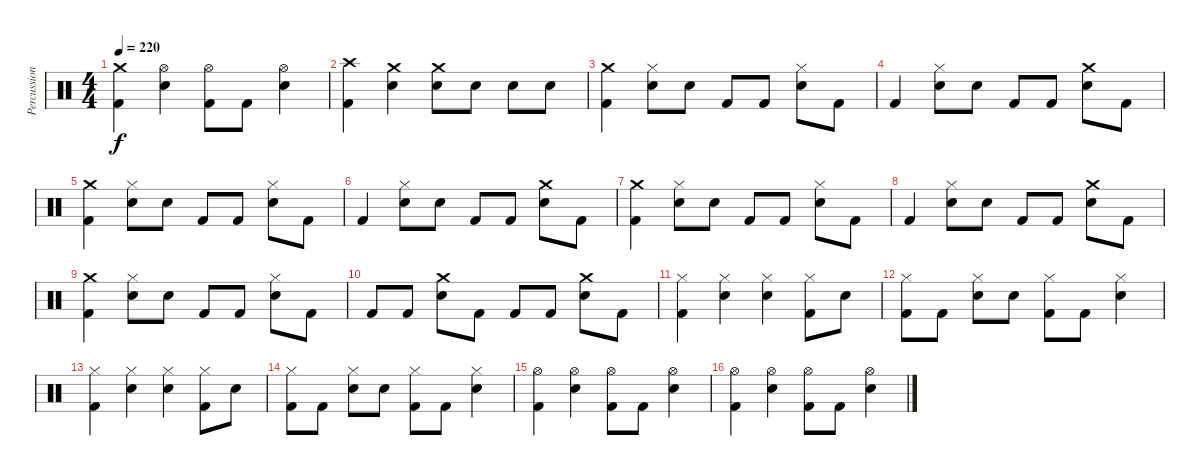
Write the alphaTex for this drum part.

\track ("Percussion" "Percussion") {instrument percussion}
\staff {score}
\articulation defaults
\ts (4 4)
\tempo 220
\clef neutral
\ks c
("Crash medium (hit)" "Kick (hit) 2").4{dy f} ("Hi-Hat (open)" "Snare (hit) 2").4 ("Hi-Hat (open)" "Kick (hit) 2").8 "Kick (hit) 2".8 ("Hi-Hat (open)" "Snare (hit) 2").4 |
("Crash high (hit)" "Kick (hit) 2").4 ("Crash medium (hit)" "Snare (hit) 2").4 ("Crash medium (hit)" "Snare (hit) 2").8 "Snare (hit) 2".8 "Snare (hit) 2".8 "Snare (hit) 2".8 |
("Crash medium (hit)" "Kick (hit) 2").4 ("Hi-Hat (closed)" "Snare (hit) 2").8 "Snare (hit) 2".8 "Kick (hit) 2".8 "Kick (hit) 2".8 ("Hi-Hat (closed)" "Snare (hit) 2").8 "Kick (hit) 2".8 |
"Kick (hit) 2".4 ("Hi-Hat (closed)" "Snare (hit) 2").8 "Snare (hit) 2".8 "Kick (hit) 2".8 "Kick (hit) 2".8 ("Crash medium (hit)" "Snare (hit) 2").8 "Kick (hit) 2".8 |
("Crash medium (hit)" "Kick (hit) 2").4 ("Hi-Hat (closed)" "Snare (hit) 2").8 "Snare (hit) 2".8 "Kick (hit) 2".8 "Kick (hit) 2".8 ("Hi-Hat (closed)" "Snare (hit) 2").8 "Kick (hit) 2".8 |
"Kick (hit) 2".4 ("Hi-Hat (closed)" "Snare (hit) 2").8 "Snare (hit) 2".8 "Kick (hit) 2".8 "Kick (hit) 2".8 ("Crash medium (hit)" "Snare (hit) 2").8 "Kick (hit) 2".8 |
("Crash medium (hit)" "Kick (hit) 2").4 ("Hi-Hat (closed)" "Snare (hit) 2").8 "Snare (hit) 2".8 "Kick (hit) 2".8 "Kick (hit) 2".8 ("Hi-Hat (closed)" "Snare (hit) 2").8 "Kick (hit) 2".8 |
"Kick (hit) 2".4 ("Hi-Hat (closed)" "Snare (hit) 2").8 "Snare (hit) 2".8 "Kick (hit) 2".8 "Kick (hit) 2".8 ("Crash medium (hit)" "Snare (hit) 2").8 "Kick (hit) 2".8 |
("Crash medium (hit)" "Kick (hit) 2").4 ("Hi-Hat (closed)" "Snare (hit) 2").8 "Snare (hit) 2".8 "Kick (hit) 2".8 "Kick (hit) 2".8 ("Hi-Hat (closed)" "Snare (hit) 2").8 "Kick (hit) 2".8 |
"Kick (hit) 2".8 "Kick (hit) 2".8 ("Crash medium (hit)" "Snare (hit) 2").8 "Kick (hit) 2".8 "Kick (hit) 2".8 "Kick (hit) 2".8 ("Crash medium (hit)" "Snare (hit) 2").8 "Kick (hit) 2".8 |
("Hi-Hat (closed)" "Kick (hit) 2").4 ("Hi-Hat (closed)" "Snare (hit) 2").4 ("Hi-Hat (closed)" "Snare (hit) 2").4 ("Hi-Hat (closed)" "Kick (hit) 2").8 "Snare (hit) 2".8 |
("Hi-Hat (closed)" "Kick (hit) 2").8 "Kick (hit) 2".8 ("Hi-Hat (closed)" "Snare (hit) 2").8 "Snare (hit) 2".8 ("Hi-Hat (closed)" "Kick (hit) 2").8 "Kick (hit) 2".8 ("Hi-Hat (closed)" "Snare (hit) 2").4 |
("Hi-Hat (closed)" "Kick (hit) 2").4 ("Hi-Hat (closed)" "Snare (hit) 2").4 ("Hi-Hat (closed)" "Snare (hit) 2").4 ("Hi-Hat (closed)" "Kick (hit) 2").8 "Snare (hit) 2".8 |
("Hi-Hat (closed)" "Kick (hit) 2").8 "Kick (hit) 2".8 ("Hi-Hat (closed)" "Snare (hit) 2").8 "Snare (hit) 2".8 ("Hi-Hat (closed)" "Kick (hit) 2").8 "Kick (hit) 2".8 ("Hi-Hat (closed)" "Snare (hit) 2").4 |
("Hi-Hat (open)" "Kick (hit) 2").4 ("Hi-Hat (open)" "Snare (hit) 2").4 ("Hi-Hat (open)" "Kick (hit) 2").8 "Kick (hit) 2".8 ("Hi-Hat (open)" "Snare (hit) 2").4 |
("Hi-Hat (open)" "Kick (hit) 2").4 ("Hi-Hat (open)" "Snare (hit) 2").4 ("Hi-Hat (open)" "Kick (hit) 2").8 "Kick (hit) 2".8 ("Hi-Hat (open)" "Snare (hit) 2").4
